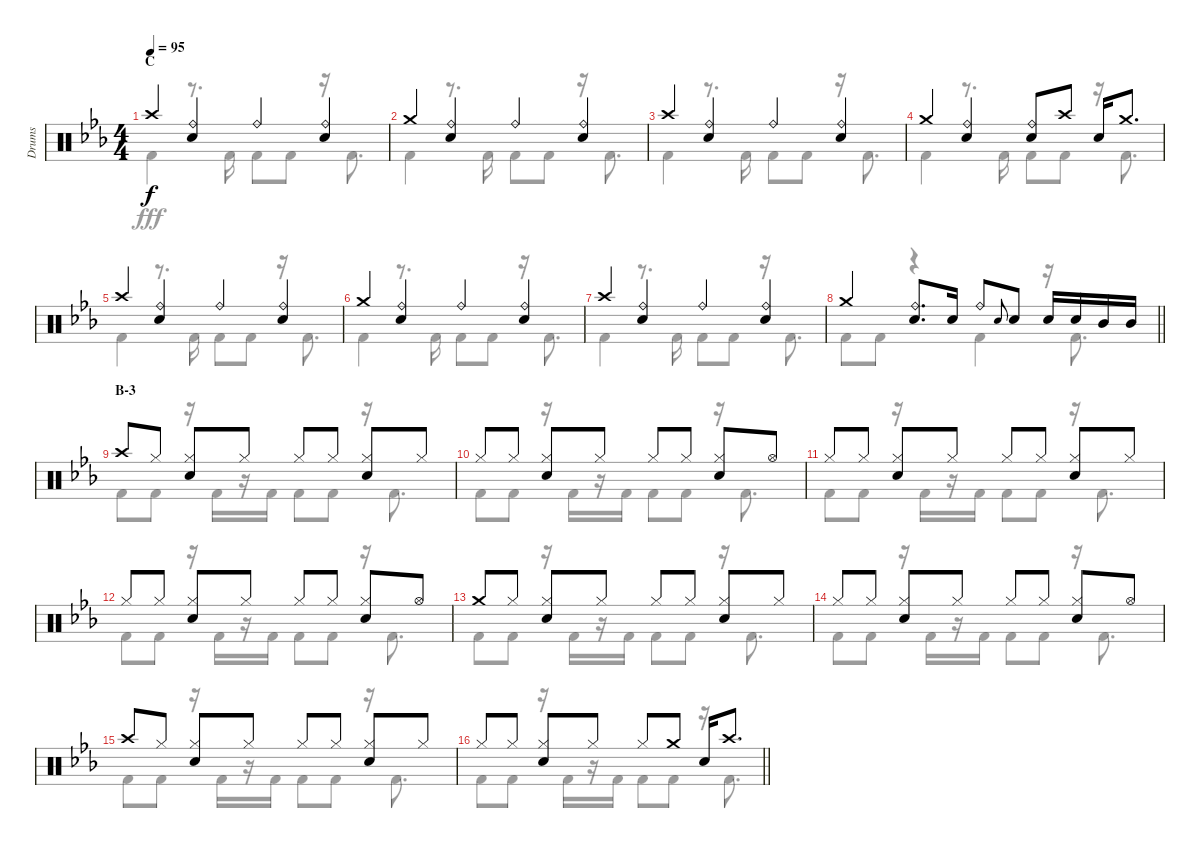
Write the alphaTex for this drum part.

\track ("Drums" "Drums") {instrument percussion}
\staff {score}
\articulation defaults
\voice
\ts (4 4)
\section ("" "C")
\tempo 95
\clef neutral
\ks cminor "Crash high (hit)".4{dy f}
("Ride (bell)" "Snare (hit) 2").4 "Ride (bell)".4 ("Ride (bell)" "Snare (hit) 2").4 |
"Crash medium (hit)".4 ("Ride (bell)" "Snare (hit) 2").4 "Ride (bell)".4 ("Ride (bell)" "Snare (hit) 2").4 |
"Crash high (hit)".4 ("Ride (bell)" "Snare (hit) 2").4 "Ride (bell)".4 ("Ride (bell)" "Snare (hit) 2").4 |
"Crash medium (hit)".4 ("Ride (bell)" "Snare (hit) 2").4 ("Ride (bell)" "Snare (hit) 2").8 "Crash high (hit)".8 "Snare (hit) 2".16 "Crash medium (hit)".8{d} |
"Crash high (hit)".4 ("Ride (bell)" "Snare (hit) 2").4 "Ride (bell)".4 ("Ride (bell)" "Snare (hit) 2").4 |
"Crash medium (hit)".4 ("Ride (bell)" "Snare (hit) 2").4 "Ride (bell)".4 ("Ride (bell)" "Snare (hit) 2").4 |
"Crash high (hit)".4 ("Ride (bell)" "Snare (hit) 2").4 "Ride (bell)".4 ("Ride (bell)" "Snare (hit) 2").4 |
\barLineRight lightlight "Crash medium (hit)".4
("Ride (bell)" "Snare (hit) 2").8{d} "Snare (hit) 2".16 "Ride (bell)".8 "Snare (hit) 2".8{gr onbeat} "Snare (hit) 2".8 "Snare (hit) 2".16 "Snare (hit) 2".16 "Mid Tom (hit)".16 "Mid Tom (hit)".16 |
\section ("" "B-3")
"Crash high (hit)".8 "Hi-Hat (closed)".8 ("Hi-Hat (closed)" "Snare (hit) 2").8 "Hi-Hat (closed)".8 "Hi-Hat (closed)".8 "Hi-Hat (closed)".8 ("Hi-Hat (closed)" "Snare (hit) 2").8 "Hi-Hat (closed)".8 |
"Hi-Hat (closed)".8 "Hi-Hat (closed)".8 ("Hi-Hat (closed)" "Snare (hit) 2").8 "Hi-Hat (closed)".8 "Hi-Hat (closed)".8 "Hi-Hat (closed)".8 ("Hi-Hat (closed)" "Snare (hit) 2").8 "Hi-Hat (open)".8 |
"Hi-Hat (closed)".8 "Hi-Hat (closed)".8 ("Hi-Hat (closed)" "Snare (hit) 2").8 "Hi-Hat (closed)".8 "Hi-Hat (closed)".8 "Hi-Hat (closed)".8 ("Hi-Hat (closed)" "Snare (hit) 2").8 "Hi-Hat (closed)".8 |
"Hi-Hat (closed)".8 "Hi-Hat (closed)".8 ("Hi-Hat (closed)" "Snare (hit) 2").8 "Hi-Hat (closed)".8 "Hi-Hat (closed)".8 "Hi-Hat (closed)".8 ("Hi-Hat (closed)" "Snare (hit) 2").8 "Hi-Hat (open)".8 |
"Crash medium (hit)".8 "Hi-Hat (closed)".8 ("Hi-Hat (closed)" "Snare (hit) 2").8 "Hi-Hat (closed)".8 "Hi-Hat (closed)".8 "Hi-Hat (closed)".8 ("Hi-Hat (closed)" "Snare (hit) 2").8 "Hi-Hat (closed)".8 |
"Hi-Hat (closed)".8 "Hi-Hat (closed)".8 ("Hi-Hat (closed)" "Snare (hit) 2").8 "Hi-Hat (closed)".8 "Hi-Hat (closed)".8 "Hi-Hat (closed)".8 ("Hi-Hat (closed)" "Snare (hit) 2").8 "Hi-Hat (open)".8 |
"Crash high (hit)".8 "Hi-Hat (closed)".8 ("Hi-Hat (closed)" "Snare (hit) 2").8 "Hi-Hat (closed)".8 "Hi-Hat (closed)".8 "Hi-Hat (closed)".8 ("Hi-Hat (closed)" "Snare (hit) 2").8 "Hi-Hat (closed)".8 |
\barLineRight lightlight "Hi-Hat (closed)".8 "Hi-Hat (closed)".8
("Hi-Hat (closed)" "Snare (hit) 2").8 "Hi-Hat (closed)".8 "Hi-Hat (closed)".8 "Crash medium (hit)".8 "Snare (hit) 2".16 "Crash high (hit)".8{d}
\voice
\clef neutral
\ottava regular
\simile none
\ks cminor "Kick (hit) 2".4{dy fff}
r.8{d} "Kick (hit) 2".16 "Kick (hit) 2".8 "Kick (hit) 2".8 r.16 "Kick (hit) 2".8{d} |
"Kick (hit) 2".4 r.8{d} "Kick (hit) 2".16 "Kick (hit) 2".8 "Kick (hit) 2".8 r.16 "Kick (hit) 2".8{d} |
"Kick (hit) 2".4 r.8{d} "Kick (hit) 2".16 "Kick (hit) 2".8 "Kick (hit) 2".8 r.16 "Kick (hit) 2".8{d} |
"Kick (hit) 2".4 r.8{d} "Kick (hit) 2".16 "Kick (hit) 2".8 "Kick (hit) 2".8 r.16 "Kick (hit) 2".8{d} |
"Kick (hit) 2".4 r.8{d} "Kick (hit) 2".16 "Kick (hit) 2".8 "Kick (hit) 2".8 r.16 "Kick (hit) 2".8{d} |
"Kick (hit) 2".4 r.8{d} "Kick (hit) 2".16 "Kick (hit) 2".8 "Kick (hit) 2".8 r.16 "Kick (hit) 2".8{d} |
"Kick (hit) 2".4 r.8{d} "Kick (hit) 2".16 "Kick (hit) 2".8 "Kick (hit) 2".8 r.16 "Kick (hit) 2".8{d} |
\barLineRight lightlight "Kick (hit) 2".8 "Kick (hit) 2".8
r.4 "Kick (hit) 2".4 r.16 "Kick (hit) 2".8{d} |
"Kick (hit) 2".8 "Kick (hit) 2".8 r.16 "Kick (hit) 2".16 r.16 "Kick (hit) 2".16 "Kick (hit) 2".8 "Kick (hit) 2".8 r.16 "Kick (hit) 2".8{d} |
"Kick (hit) 2".8 "Kick (hit) 2".8 r.16 "Kick (hit) 2".16 r.16 "Kick (hit) 2".16 "Kick (hit) 2".8 "Kick (hit) 2".8 r.16 "Kick (hit) 2".8{d} |
"Kick (hit) 2".8 "Kick (hit) 2".8 r.16 "Kick (hit) 2".16 r.16 "Kick (hit) 2".16 "Kick (hit) 2".8 "Kick (hit) 2".8 r.16 "Kick (hit) 2".8{d} |
"Kick (hit) 2".8 "Kick (hit) 2".8 r.16 "Kick (hit) 2".16 r.16 "Kick (hit) 2".16 "Kick (hit) 2".8 "Kick (hit) 2".8 r.16 "Kick (hit) 2".8{d} |
"Kick (hit) 2".8 "Kick (hit) 2".8 r.16 "Kick (hit) 2".16 r.16 "Kick (hit) 2".16 "Kick (hit) 2".8 "Kick (hit) 2".8 r.16 "Kick (hit) 2".8{d} |
"Kick (hit) 2".8 "Kick (hit) 2".8 r.16 "Kick (hit) 2".16 r.16 "Kick (hit) 2".16 "Kick (hit) 2".8 "Kick (hit) 2".8 r.16 "Kick (hit) 2".8{d} |
"Kick (hit) 2".8 "Kick (hit) 2".8 r.16 "Kick (hit) 2".16 r.16 "Kick (hit) 2".16 "Kick (hit) 2".8 "Kick (hit) 2".8 r.16 "Kick (hit) 2".8{d} |
\barLineRight lightlight "Kick (hit) 2".8 "Kick (hit) 2".8
r.16 "Kick (hit) 2".16 r.16 "Kick (hit) 2".16 "Kick (hit) 2".8 "Kick (hit) 2".8 r.16 "Kick (hit) 2".8{d}
